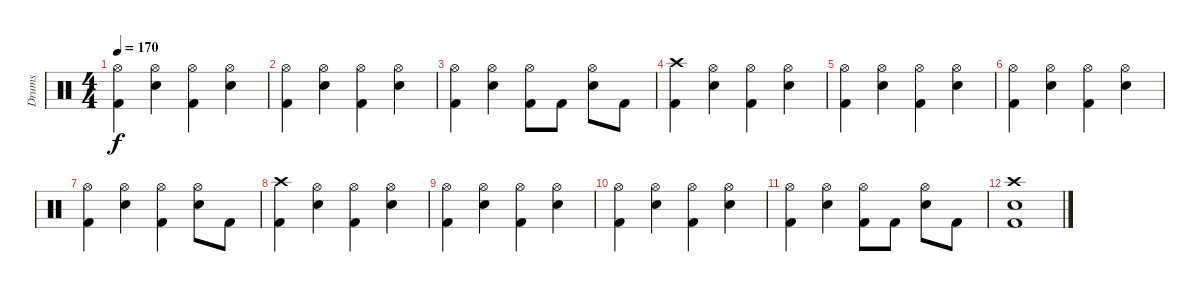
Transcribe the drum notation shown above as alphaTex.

\track ("Drums" "Drums") {instrument percussion}
\staff {score}
\articulation defaults
\ts (4 4)
\tempo 170
\clef neutral
\ks c
("Hi-Hat (open)" "Kick (hit) 2").4{dy f} ("Hi-Hat (open)" "Snare (hit) 2").4 ("Hi-Hat (open)" "Kick (hit) 2").4 ("Hi-Hat (open)" "Snare (hit) 2").4 |
("Hi-Hat (open)" "Kick (hit) 2").4 ("Hi-Hat (open)" "Snare (hit) 2").4 ("Hi-Hat (open)" "Kick (hit) 2").4 ("Hi-Hat (open)" "Snare (hit) 2").4 |
("Hi-Hat (open)" "Kick (hit) 2").4 ("Hi-Hat (open)" "Snare (hit) 2").4 ("Hi-Hat (open)" "Kick (hit) 2").8 "Kick (hit) 2".8 ("Hi-Hat (open)" "Snare (hit) 2").8 "Kick (hit) 2".8 |
("Crash high (hit)" "Kick (hit) 2").4 ("Hi-Hat (open)" "Snare (hit) 2").4 ("Hi-Hat (open)" "Kick (hit) 2").4 ("Hi-Hat (open)" "Snare (hit) 2").4 |
("Hi-Hat (open)" "Kick (hit) 2").4 ("Hi-Hat (open)" "Snare (hit) 2").4 ("Hi-Hat (open)" "Kick (hit) 2").4 ("Hi-Hat (open)" "Snare (hit) 2").4 |
("Hi-Hat (open)" "Kick (hit) 2").4 ("Hi-Hat (open)" "Snare (hit) 2").4 ("Hi-Hat (open)" "Kick (hit) 2").4 ("Hi-Hat (open)" "Snare (hit) 2").4 |
("Hi-Hat (open)" "Kick (hit) 2").4 ("Hi-Hat (open)" "Snare (hit) 2").4 ("Hi-Hat (open)" "Kick (hit) 2").4 ("Hi-Hat (open)" "Snare (hit) 2").8 "Kick (hit) 2".8 |
("Crash high (hit)" "Kick (hit) 2").4 ("Hi-Hat (open)" "Snare (hit) 2").4 ("Hi-Hat (open)" "Kick (hit) 2").4 ("Hi-Hat (open)" "Snare (hit) 2").4 |
("Hi-Hat (open)" "Kick (hit) 2").4 ("Hi-Hat (open)" "Snare (hit) 2").4 ("Hi-Hat (open)" "Kick (hit) 2").4 ("Hi-Hat (open)" "Snare (hit) 2").4 |
("Hi-Hat (open)" "Kick (hit) 2").4 ("Hi-Hat (open)" "Snare (hit) 2").4 ("Hi-Hat (open)" "Kick (hit) 2").4 ("Hi-Hat (open)" "Snare (hit) 2").4 |
("Hi-Hat (open)" "Kick (hit) 2").4 ("Hi-Hat (open)" "Snare (hit) 2").4 ("Hi-Hat (open)" "Kick (hit) 2").8 "Kick (hit) 2".8 ("Hi-Hat (open)" "Snare (hit) 2").8 "Kick (hit) 2".8 |
("Crash high (hit)" "Snare (hit) 2" "Kick (hit) 2").1
